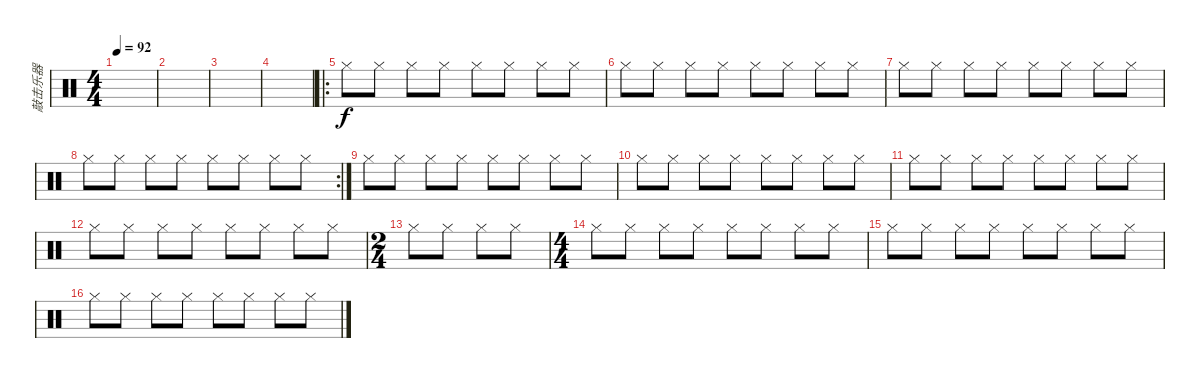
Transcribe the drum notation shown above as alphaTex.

\track ("敲击乐器" "敲击乐器") {instrument percussion}
\staff {score}
\articulation defaults
\ts (4 4)
\tempo 92
\clef neutral
\ks c
|
|
|
|
\ro "Hi-Hat (closed)".8 "Hi-Hat (closed)".8 "Hi-Hat (closed)".8 "Hi-Hat (closed)".8 "Hi-Hat (closed)".8 "Hi-Hat (closed)".8 "Hi-Hat (closed)".8 "Hi-Hat (closed)".8
|
"Hi-Hat (closed)".8 "Hi-Hat (closed)".8 "Hi-Hat (closed)".8 "Hi-Hat (closed)".8 "Hi-Hat (closed)".8 "Hi-Hat (closed)".8 "Hi-Hat (closed)".8 "Hi-Hat (closed)".8 |
"Hi-Hat (closed)".8 "Hi-Hat (closed)".8 "Hi-Hat (closed)".8 "Hi-Hat (closed)".8 "Hi-Hat (closed)".8 "Hi-Hat (closed)".8 "Hi-Hat (closed)".8 "Hi-Hat (closed)".8 |
\rc 2 "Hi-Hat (closed)".8 "Hi-Hat (closed)".8 "Hi-Hat (closed)".8 "Hi-Hat (closed)".8 "Hi-Hat (closed)".8 "Hi-Hat (closed)".8 "Hi-Hat (closed)".8 "Hi-Hat (closed)".8
|
"Hi-Hat (closed)".8 "Hi-Hat (closed)".8 "Hi-Hat (closed)".8 "Hi-Hat (closed)".8 "Hi-Hat (closed)".8 "Hi-Hat (closed)".8 "Hi-Hat (closed)".8 "Hi-Hat (closed)".8 |
"Hi-Hat (closed)".8 "Hi-Hat (closed)".8 "Hi-Hat (closed)".8 "Hi-Hat (closed)".8 "Hi-Hat (closed)".8 "Hi-Hat (closed)".8 "Hi-Hat (closed)".8 "Hi-Hat (closed)".8 |
"Hi-Hat (closed)".8 "Hi-Hat (closed)".8 "Hi-Hat (closed)".8 "Hi-Hat (closed)".8 "Hi-Hat (closed)".8 "Hi-Hat (closed)".8 "Hi-Hat (closed)".8 "Hi-Hat (closed)".8 |
"Hi-Hat (closed)".8 "Hi-Hat (closed)".8 "Hi-Hat (closed)".8 "Hi-Hat (closed)".8 "Hi-Hat (closed)".8 "Hi-Hat (closed)".8 "Hi-Hat (closed)".8 "Hi-Hat (closed)".8 |
\ts (2 4)
"Hi-Hat (closed)".8 "Hi-Hat (closed)".8 "Hi-Hat (closed)".8 "Hi-Hat (closed)".8 |
\ts (4 4)
"Hi-Hat (closed)".8 "Hi-Hat (closed)".8 "Hi-Hat (closed)".8 "Hi-Hat (closed)".8 "Hi-Hat (closed)".8 "Hi-Hat (closed)".8 "Hi-Hat (closed)".8 "Hi-Hat (closed)".8 |
"Hi-Hat (closed)".8 "Hi-Hat (closed)".8 "Hi-Hat (closed)".8 "Hi-Hat (closed)".8 "Hi-Hat (closed)".8 "Hi-Hat (closed)".8 "Hi-Hat (closed)".8 "Hi-Hat (closed)".8 |
"Hi-Hat (closed)".8 "Hi-Hat (closed)".8 "Hi-Hat (closed)".8 "Hi-Hat (closed)".8 "Hi-Hat (closed)".8 "Hi-Hat (closed)".8 "Hi-Hat (closed)".8 "Hi-Hat (closed)".8
